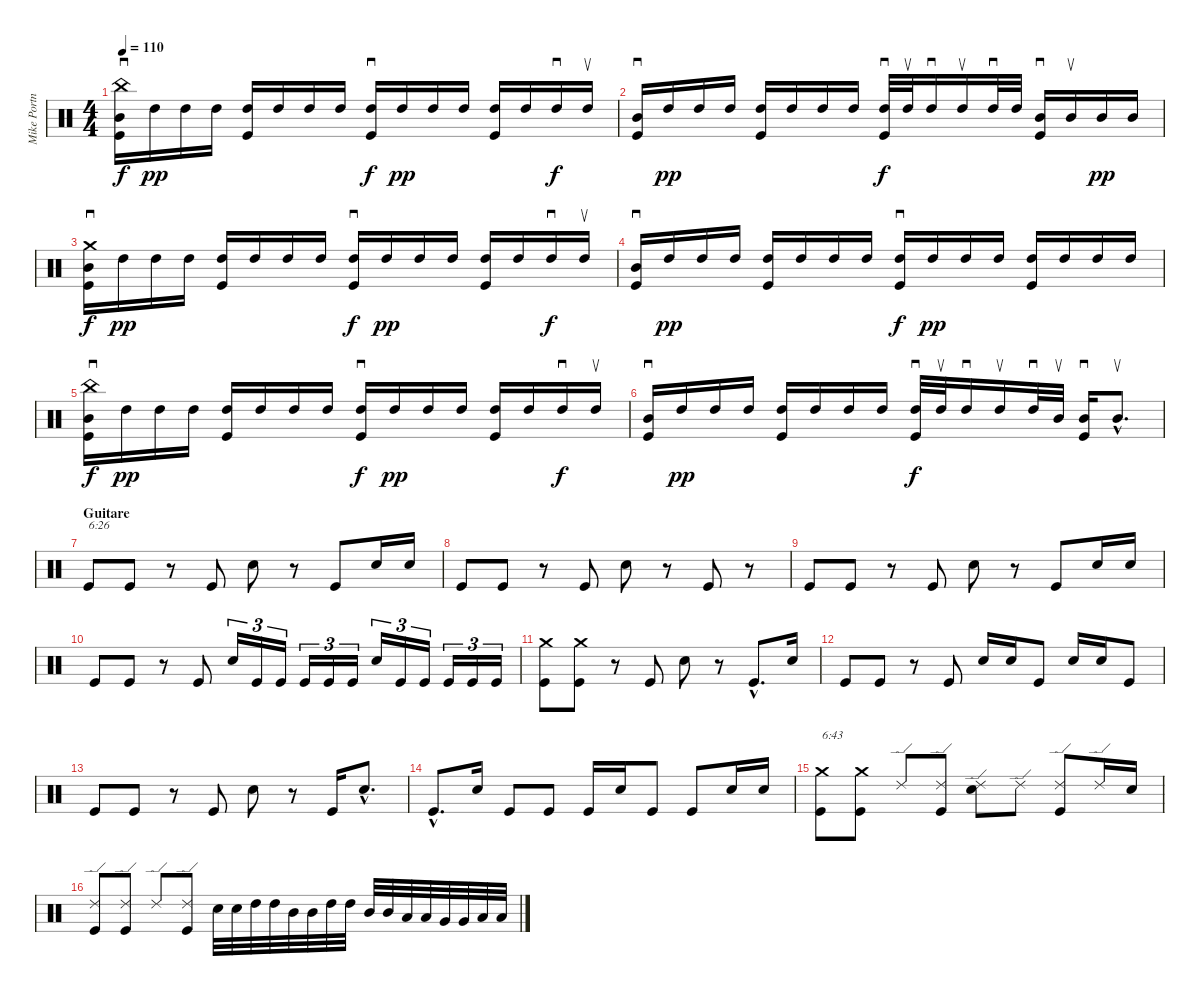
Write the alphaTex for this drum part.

\track ("Mike Portnoy" "Mike Portn") {instrument percussion}
\staff {score}
\articulation defaults
\ts (4 4)
\tempo 110
\clef neutral
\ks c
("China (hit)" "Mid Tom (hit)" "Kick (hit)").16{sd dy f} "High Tom (hit)".16{dy pp} "High Tom (hit)".16 "High Tom (hit)".16 ("High Tom (hit)" "Kick (hit)").16 "High Tom (hit)".16 "High Tom (hit)".16 "High Tom (hit)".16 ("High Tom (hit)" "Kick (hit)").16{sd dy f} "High Tom (hit)".16{dy pp} "High Tom (hit)".16 "High Tom (hit)".16 ("High Tom (hit)" "Kick (hit)").16 "High Tom (hit)".16 "High Tom (hit)".16{sd dy f} "High Tom (hit)".16{su} |
("Mid Tom (hit)" "Kick (hit)").16{sd} "High Tom (hit)".16{dy pp} "High Tom (hit)".16 "High Tom (hit)".16 ("High Tom (hit)" "Kick (hit)").16 "High Tom (hit)".16 "High Tom (hit)".16 "High Tom (hit)".16 ("High Tom (hit)" "Kick (hit)").32{sd dy f} "High Tom (hit)".32{su} "High Tom (hit)".16{sd} "High Tom (hit)".16{su} "High Tom (hit)".32{sd} "High Tom (hit)".32 ("Mid Tom (hit)" "Kick (hit)").16{sd} "Mid Tom (hit)".16{su} "Mid Tom (hit)".16{dy pp} "Mid Tom (hit)".16 |
("Crash medium (hit)" "Mid Tom (hit)" "Kick (hit)").16{sd dy f} "High Tom (hit)".16{dy pp} "High Tom (hit)".16 "High Tom (hit)".16 ("High Tom (hit)" "Kick (hit)").16 "High Tom (hit)".16 "High Tom (hit)".16 "High Tom (hit)".16 ("High Tom (hit)" "Kick (hit)").16{sd dy f} "High Tom (hit)".16{dy pp} "High Tom (hit)".16 "High Tom (hit)".16 ("High Tom (hit)" "Kick (hit)").16 "High Tom (hit)".16 "High Tom (hit)".16{sd dy f} "High Tom (hit)".16{su} |
("Mid Tom (hit)" "Kick (hit)").16{sd} "High Tom (hit)".16{dy pp} "High Tom (hit)".16 "High Tom (hit)".16 ("High Tom (hit)" "Kick (hit)").16 "High Tom (hit)".16 "High Tom (hit)".16 "High Tom (hit)".16 ("High Tom (hit)" "Kick (hit)").16{sd dy f} "High Tom (hit)".16{dy pp} "High Tom (hit)".16 "High Tom (hit)".16 ("High Tom (hit)" "Kick (hit)").16 "High Tom (hit)".16 "High Tom (hit)".16 "High Tom (hit)".16 |
("China (hit)" "Mid Tom (hit)" "Kick (hit)").16{sd dy f} "High Tom (hit)".16{dy pp} "High Tom (hit)".16 "High Tom (hit)".16 ("High Tom (hit)" "Kick (hit)").16 "High Tom (hit)".16 "High Tom (hit)".16 "High Tom (hit)".16 ("High Tom (hit)" "Kick (hit)").16{sd dy f} "High Tom (hit)".16{dy pp} "High Tom (hit)".16 "High Tom (hit)".16 ("High Tom (hit)" "Kick (hit)").16 "High Tom (hit)".16 "High Tom (hit)".16{sd dy f} "High Tom (hit)".16{su} |
("Mid Tom (hit)" "Kick (hit)").16{sd} "High Tom (hit)".16{dy pp} "High Tom (hit)".16 "High Tom (hit)".16 ("High Tom (hit)" "Kick (hit)").16 "High Tom (hit)".16 "High Tom (hit)".16 "High Tom (hit)".16 ("High Tom (hit)" "Kick (hit)").32{sd dy f} "High Tom (hit)".32{su} "High Tom (hit)".16{sd} "High Tom (hit)".16{su} "High Tom (hit)".32{sd} "Mid Tom (hit)".32{su} ("Mid Tom (hit)" "Kick (hit)").16{sd} "Mid Tom (hit)"{hac}.8{d su} |
\section ("" "Guitare")
"Kick (hit)".8{txt "6:26"} "Kick (hit)".8 r.8 "Kick (hit)".8 "Snare (hit) 2".8 r.8 "Kick (hit)".8 "Snare (hit) 2".16 "Snare (hit) 2".16 |
"Kick (hit)".8 "Kick (hit)".8 r.8 "Kick (hit)".8 "Snare (hit) 2".8 r.8 "Kick (hit)".8 r.8 |
"Kick (hit)".8 "Kick (hit)".8 r.8 "Kick (hit)".8 "Snare (hit) 2".8 r.8 "Kick (hit)".8 "Snare (hit) 2".16 "Snare (hit) 2".16 |
"Kick (hit)".8 "Kick (hit)".8 r.8 "Kick (hit)".8 "Snare (hit) 2".16{tu (3 2)} "Kick (hit)".16{tu (3 2)} "Kick (hit)".16{tu (3 2)} "Kick (hit)".16{tu (3 2)} "Kick (hit)".16{tu (3 2)} "Kick (hit)".16{tu (3 2)} "Snare (hit) 2".16{tu (3 2)} "Kick (hit)".16{tu (3 2)} "Kick (hit)".16{tu (3 2)} "Kick (hit)".16{tu (3 2)} "Kick (hit)".16{tu (3 2)} "Kick (hit)".16{tu (3 2)} |
("Crash medium (hit)" "Kick (hit)").8 ("Crash medium (hit)" "Kick (hit)").8 r.8 "Kick (hit)".8 "Snare (hit) 2".8 r.8 "Kick (hit)"{hac}.8{d} "Snare (hit) 2".16 |
"Kick (hit)".8 "Kick (hit)".8 r.8 "Kick (hit)".8 "Snare (hit) 2".16 "Snare (hit) 2".16 "Kick (hit)".8 "Snare (hit) 2".16 "Snare (hit) 2".16 "Kick (hit)".8 |
"Kick (hit)".8 "Kick (hit)".8 r.8 "Kick (hit)".8 "Snare (hit) 2".8 r.8 "Kick (hit)".16 "Snare (hit) 2"{hac}.8{d} |
"Kick (hit)"{hac}.8{d} "Snare (hit) 2".16 "Kick (hit)".8 "Kick (hit)".8 "Kick (hit)".16 "Snare (hit) 2".16 "Kick (hit)".8 "Kick (hit)".8 "Snare (hit) 2".16 "Snare (hit) 2".16 |
("Crash medium (hit)" "Kick (hit)").8{txt "6:43"} ("Crash medium (hit)" "Kick (hit)").8 "Ride (edge) 2".8 ("Ride (edge) 2" "Kick (hit)").8 ("Ride (edge) 2" "Snare (hit) 2").8 "Ride (edge) 2".8 ("Ride (edge) 2" "Kick (hit)").8 "Ride (edge) 2".16 "Snare (hit) 2".16 |
("Ride (edge) 2" "Kick (hit)").8 ("Ride (edge) 2" "Kick (hit)").8 "Ride (edge) 2".8 ("Ride (edge) 2" "Kick (hit)").8 "Snare (hit) 2".32 "Snare (hit) 2".32 "High Tom (hit)".32 "High Tom (hit)".32 "Mid Tom (hit)".32 "Mid Tom (hit)".32 "High Tom (hit)".32 "High Tom (hit)".32 "Mid Tom (hit)".32 "Mid Tom (hit)".32 "Low Tom (hit)".32 "Low Tom (hit)".32 "Very Low Tom (hit)".32 "Very Low Tom (hit)".32 "Low Floor Tom (hit)".32 "Low Floor Tom (hit)".32
